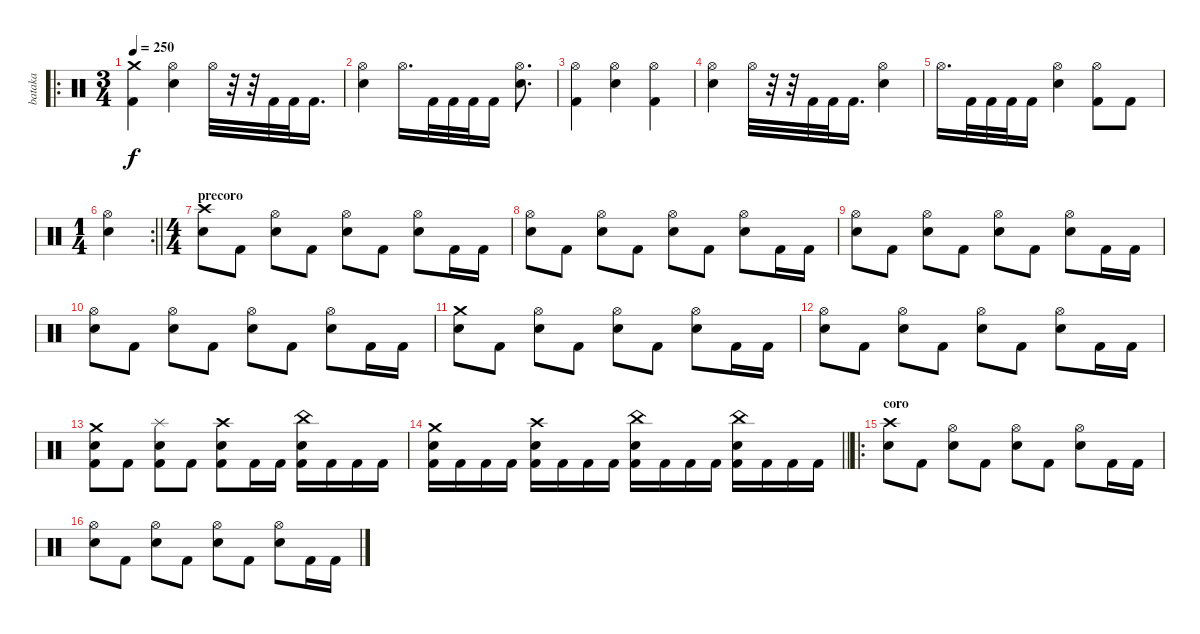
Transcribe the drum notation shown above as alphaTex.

\track ("bataka" "bataka") {instrument percussion}
\staff {score}
\articulation defaults
\ro
\ts (3 4)
\tempo 250
\clef neutral
\ks c
("Crash medium (hit)" "Kick (hit) 2").4{dy f} ("Hi-Hat (open)" "Electric Snare (hit)").4 "Hi-Hat (open)".32 r.32 r.32 "Kick (hit) 2".32 "Kick (hit) 2".32 "Kick (hit) 2".16{d} |
("Hi-Hat (open)" "Electric Snare (hit)").4 "Hi-Hat (open)".16{d} "Kick (hit) 2".32 "Kick (hit) 2".32 "Kick (hit) 2".32 "Kick (hit) 2".16 ("Hi-Hat (open)" "Electric Snare (hit)").8{d} |
("Hi-Hat (open)" "Kick (hit) 2").4 ("Hi-Hat (open)" "Electric Snare (hit)").4 ("Hi-Hat (open)" "Kick (hit) 2").4 |
("Hi-Hat (open)" "Electric Snare (hit)").4 "Hi-Hat (open)".32 r.32 r.32 "Kick (hit) 2".32 "Kick (hit) 2".32 "Kick (hit) 2".16{d} ("Hi-Hat (open)" "Electric Snare (hit)").4 |
"Hi-Hat (open)".16{d} "Kick (hit) 2".32 "Kick (hit) 2".32 "Kick (hit) 2".32 "Kick (hit) 2".16 ("Hi-Hat (open)" "Electric Snare (hit)").4 ("Hi-Hat (open)" "Kick (hit) 2").8 "Kick (hit) 2".8 |
\rc 2
\ts (1 4)
\barLineRight lightlight
("Hi-Hat (open)" "Electric Snare (hit)").4 |
\ts (4 4)
\section ("" "precoro")
("Crash high (hit)" "Electric Snare (hit)").8 "Kick (hit) 2".8 ("Hi-Hat (open)" "Electric Snare (hit)").8 "Kick (hit) 2".8 ("Hi-Hat (open)" "Electric Snare (hit)").8 "Kick (hit) 2".8 ("Hi-Hat (open)" "Electric Snare (hit)").8 "Kick (hit) 2".16 "Kick (hit) 2".16 |
("Hi-Hat (open)" "Electric Snare (hit)").8 "Kick (hit) 2".8 ("Hi-Hat (open)" "Electric Snare (hit)").8 "Kick (hit) 2".8 ("Hi-Hat (open)" "Electric Snare (hit)").8 "Kick (hit) 2".8 ("Hi-Hat (open)" "Electric Snare (hit)").8 "Kick (hit) 2".16 "Kick (hit) 2".16 |
("Hi-Hat (open)" "Electric Snare (hit)").8 "Kick (hit) 2".8 ("Hi-Hat (open)" "Electric Snare (hit)").8 "Kick (hit) 2".8 ("Hi-Hat (open)" "Electric Snare (hit)").8 "Kick (hit) 2".8 ("Hi-Hat (open)" "Electric Snare (hit)").8 "Kick (hit) 2".16 "Kick (hit) 2".16 |
("Hi-Hat (open)" "Electric Snare (hit)").8 "Kick (hit) 2".8 ("Hi-Hat (open)" "Electric Snare (hit)").8 "Kick (hit) 2".8 ("Hi-Hat (open)" "Electric Snare (hit)").8 "Kick (hit) 2".8 ("Hi-Hat (open)" "Electric Snare (hit)").8 "Kick (hit) 2".16 "Kick (hit) 2".16 |
("Crash medium (hit)" "Electric Snare (hit)").8 "Kick (hit) 2".8 ("Hi-Hat (open)" "Electric Snare (hit)").8 "Kick (hit) 2".8 ("Hi-Hat (open)" "Electric Snare (hit)").8 "Kick (hit) 2".8 ("Hi-Hat (open)" "Electric Snare (hit)").8 "Kick (hit) 2".16 "Kick (hit) 2".16 |
("Hi-Hat (open)" "Electric Snare (hit)").8 "Kick (hit) 2".8 ("Hi-Hat (open)" "Electric Snare (hit)").8 "Kick (hit) 2".8 ("Hi-Hat (open)" "Electric Snare (hit)").8 "Kick (hit) 2".8 ("Hi-Hat (open)" "Electric Snare (hit)").8 "Kick (hit) 2".16 "Kick (hit) 2".16 |
("Crash medium (hit)" "Electric Snare (hit)" "Kick (hit) 2").8 "Kick (hit) 2".8 ("Splash (hit)" "Electric Snare (hit)" "Kick (hit) 2").8 "Kick (hit) 2".8 ("Crash high (hit)" "Electric Snare (hit)" "Kick (hit) 2").8 "Kick (hit) 2".16 "Kick (hit) 2".16 ("China (hit)" "Electric Snare (hit)" "Kick (hit) 2").16 "Kick (hit) 2".16 "Kick (hit) 2".16 "Kick (hit) 2".16 |
\barLineRight lightlight
("Crash medium (hit)" "Electric Snare (hit)" "Kick (hit) 2").16 "Kick (hit) 2".16 "Kick (hit) 2".16 "Kick (hit) 2".16 ("Crash high (hit)" "Electric Snare (hit)" "Kick (hit) 2").16 "Kick (hit) 2".16 "Kick (hit) 2".16 "Kick (hit) 2".16 ("China (hit)" "Electric Snare (hit)" "Kick (hit) 2").16 "Kick (hit) 2".16 "Kick (hit) 2".16 "Kick (hit) 2".16 ("China (hit)" "Electric Snare (hit)" "Kick (hit) 2").16 "Kick (hit) 2".16 "Kick (hit) 2".16 "Kick (hit) 2".16 |
\ro
\section ("" "coro")
("Crash high (hit)" "Electric Snare (hit)").8 "Kick (hit) 2".8 ("Hi-Hat (open)" "Electric Snare (hit)").8 "Kick (hit) 2".8 ("Hi-Hat (open)" "Electric Snare (hit)").8 "Kick (hit) 2".8 ("Hi-Hat (open)" "Electric Snare (hit)").8 "Kick (hit) 2".16 "Kick (hit) 2".16 |
("Hi-Hat (open)" "Electric Snare (hit)").8 "Kick (hit) 2".8 ("Hi-Hat (open)" "Electric Snare (hit)").8 "Kick (hit) 2".8 ("Hi-Hat (open)" "Electric Snare (hit)").8 "Kick (hit) 2".8 ("Hi-Hat (open)" "Electric Snare (hit)").8 "Kick (hit) 2".16 "Kick (hit) 2".16
